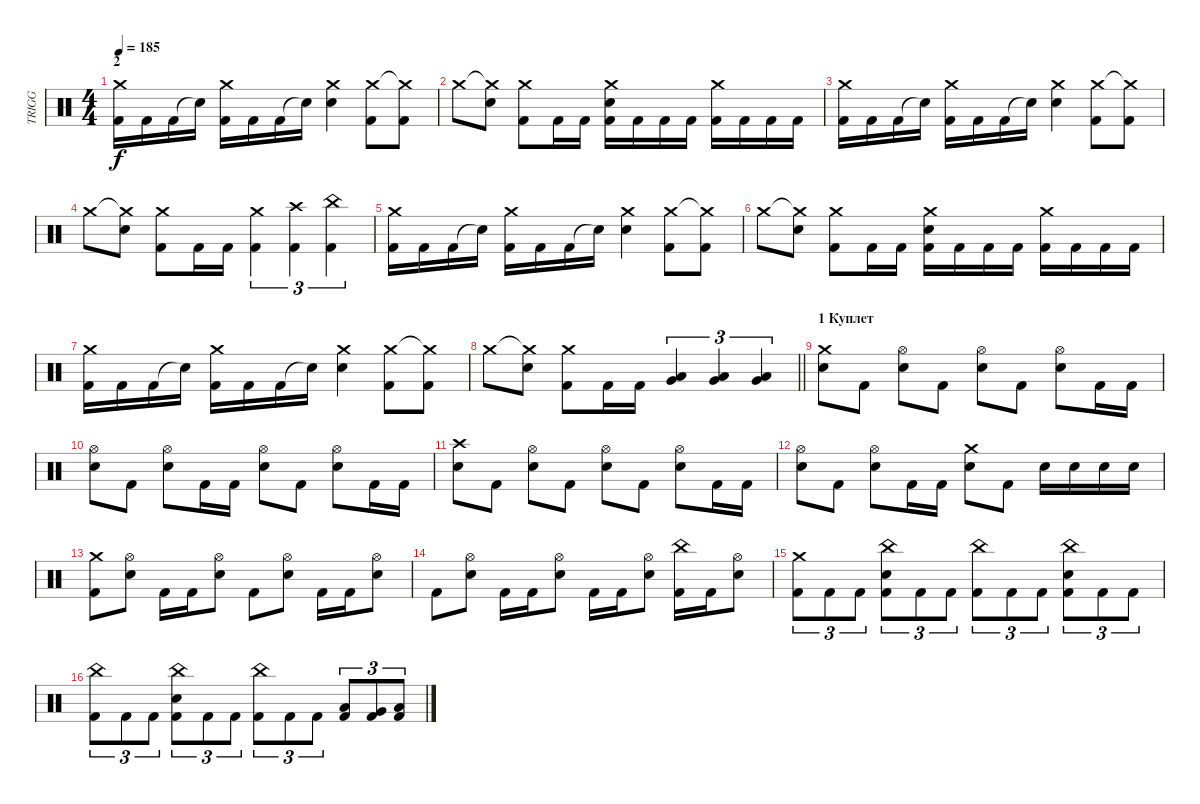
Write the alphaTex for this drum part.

\track ("TRIGG" "TRIGG") {instrument percussion}
\staff {score}
\articulation defaults
\ts (4 4)
\section ("" "2")
\tempo 185
\clef neutral
\ks c
("Crash medium (hit)" "Kick (hit) 2").16{dy f} "Kick (hit) 2".16 "Kick (hit) 2".16 "Snare (hit)"{t}.16 ("Crash medium (hit)" "Kick (hit) 2").16 "Kick (hit) 2".16 "Kick (hit) 2".16 "Snare (hit)"{t}.16 ("Crash medium (hit)" "Electric Snare (hit)").4 ("Crash medium (hit)" "Kick (hit) 2").8 ("Crash medium (hit)"{t} "Kick (hit) 2").8 |
"Crash medium (hit)".8 ("Crash medium (hit)"{t} "Electric Snare (hit)").8 ("Crash medium (hit)" "Kick (hit) 2").8 "Kick (hit) 2".16 "Kick (hit) 2".16 ("Crash medium (hit)" "Electric Snare (hit)" "Kick (hit) 2").16 "Kick (hit) 2".16 "Kick (hit) 2".16 "Kick (hit) 2".16 ("Crash medium (hit)" "Kick (hit) 2").16 "Kick (hit) 2".16 "Kick (hit) 2".16 "Kick (hit) 2".16 |
("Crash medium (hit)" "Kick (hit) 2").16 "Kick (hit) 2".16 "Kick (hit) 2".16 "Snare (hit)"{t}.16 ("Crash medium (hit)" "Kick (hit) 2").16 "Kick (hit) 2".16 "Kick (hit) 2".16 "Snare (hit)"{t}.16 ("Crash medium (hit)" "Electric Snare (hit)").4 ("Crash medium (hit)" "Kick (hit) 2").8 ("Crash medium (hit)"{t} "Kick (hit) 2").8 |
"Crash medium (hit)".8 ("Crash medium (hit)"{t} "Electric Snare (hit)").8 ("Crash medium (hit)" "Kick (hit) 2").8 "Kick (hit) 2".16 "Kick (hit) 2".16 ("Crash medium (hit)" "Kick (hit) 2").4{tu (3 2)} ("Crash high (hit)" "Kick (hit) 2").4{tu (3 2)} ("China (hit)" "Kick (hit) 2").4{tu (3 2)} |
("Crash medium (hit)" "Kick (hit) 2").16 "Kick (hit) 2".16 "Kick (hit) 2".16 "Snare (hit)"{t}.16 ("Crash medium (hit)" "Kick (hit) 2").16 "Kick (hit) 2".16 "Kick (hit) 2".16 "Snare (hit)"{t}.16 ("Crash medium (hit)" "Electric Snare (hit)").4 ("Crash medium (hit)" "Kick (hit) 2").8 ("Crash medium (hit)"{t} "Kick (hit) 2").8 |
"Crash medium (hit)".8 ("Crash medium (hit)"{t} "Electric Snare (hit)").8 ("Crash medium (hit)" "Kick (hit) 2").8 "Kick (hit) 2".16 "Kick (hit) 2".16 ("Crash medium (hit)" "Electric Snare (hit)" "Kick (hit) 2").16 "Kick (hit) 2".16 "Kick (hit) 2".16 "Kick (hit) 2".16 ("Crash medium (hit)" "Kick (hit) 2").16 "Kick (hit) 2".16 "Kick (hit) 2".16 "Kick (hit) 2".16 |
("Crash medium (hit)" "Kick (hit) 2").16 "Kick (hit) 2".16 "Kick (hit) 2".16 "Snare (hit)"{t}.16 ("Crash medium (hit)" "Kick (hit) 2").16 "Kick (hit) 2".16 "Kick (hit) 2".16 "Snare (hit)"{t}.16 ("Crash medium (hit)" "Electric Snare (hit)").4 ("Crash medium (hit)" "Kick (hit) 2").8 ("Crash medium (hit)"{t} "Kick (hit) 2").8 |
\barLineRight lightlight "Crash medium (hit)".8
("Crash medium (hit)"{t} "Electric Snare (hit)").8 ("Crash medium (hit)" "Kick (hit) 2").8 "Kick (hit) 2".16 "Kick (hit) 2".16 ("Very Low Tom (hit)" "Low Floor Tom (hit)").4{tu (3 2)} ("Very Low Tom (hit)" "Low Floor Tom (hit)").4{tu (3 2)} ("Very Low Tom (hit)" "Low Floor Tom (hit)").4{tu (3 2)} |
\section ("" "1 Куплет")
("Crash medium (hit)" "Electric Snare (hit)").8 "Kick (hit) 2".8 ("Hi-Hat (open)" "Electric Snare (hit)").8 "Kick (hit) 2".8 ("Hi-Hat (open)" "Electric Snare (hit)").8 "Kick (hit) 2".8 ("Hi-Hat (open)" "Electric Snare (hit)").8 "Kick (hit) 2".16 "Kick (hit) 2".16 |
("Hi-Hat (open)" "Electric Snare (hit)").8 "Kick (hit) 2".8 ("Hi-Hat (open)" "Electric Snare (hit)").8 "Kick (hit) 2".16 "Kick (hit) 2".16 ("Hi-Hat (open)" "Electric Snare (hit)").8 "Kick (hit) 2".8 ("Hi-Hat (open)" "Electric Snare (hit)").8 "Kick (hit) 2".16 "Kick (hit) 2".16 |
("Crash high (hit)" "Electric Snare (hit)").8 "Kick (hit) 2".8 ("Hi-Hat (open)" "Electric Snare (hit)").8 "Kick (hit) 2".8 ("Hi-Hat (open)" "Electric Snare (hit)").8 "Kick (hit) 2".8 ("Hi-Hat (open)" "Electric Snare (hit)").8 "Kick (hit) 2".16 "Kick (hit) 2".16 |
("Hi-Hat (open)" "Electric Snare (hit)").8 "Kick (hit) 2".8 ("Hi-Hat (open)" "Electric Snare (hit)").8 "Kick (hit) 2".16 "Kick (hit) 2".16 ("Crash medium (hit)" "Electric Snare (hit)").8 "Kick (hit) 2".8 "Electric Snare (hit)".16 "Electric Snare (hit)".16 "Electric Snare (hit)".16 "Electric Snare (hit)".16 |
("Crash medium (hit)" "Kick (hit) 2").8 ("Hi-Hat (open)" "Electric Snare (hit)").8 "Kick (hit) 2".16 "Kick (hit) 2".16 ("Hi-Hat (open)" "Electric Snare (hit)").8 "Kick (hit) 2".8 ("Hi-Hat (open)" "Electric Snare (hit)").8 "Kick (hit) 2".16 "Kick (hit) 2".16 ("Hi-Hat (open)" "Electric Snare (hit)").8 |
"Kick (hit) 2".8 ("Hi-Hat (open)" "Electric Snare (hit)").8 "Kick (hit) 2".16 "Kick (hit) 2".16 ("Hi-Hat (open)" "Electric Snare (hit)").8 "Kick (hit) 2".16 "Kick (hit) 2".16 ("Hi-Hat (open)" "Electric Snare (hit)").8 ("China (hit)" "Kick (hit) 2").16 "Kick (hit) 2".16 ("Hi-Hat (open)" "Electric Snare (hit)").8 |
("Crash medium (hit)" "Kick (hit) 2").8{tu (3 2)} "Kick (hit) 2".8{tu (3 2)} "Kick (hit) 2".8{tu (3 2)} ("China (hit)" "Electric Snare (hit)" "Kick (hit) 2").8{tu (3 2)} "Kick (hit) 2".8{tu (3 2)} "Kick (hit) 2".8{tu (3 2)} ("China (hit)" "Kick (hit) 2").8{tu (3 2)} "Kick (hit) 2".8{tu (3 2)} "Kick (hit) 2".8{tu (3 2)} ("China (hit)" "Electric Snare (hit)" "Kick (hit) 2").8{tu (3 2)} "Kick (hit) 2".8{tu (3 2)} "Kick (hit) 2".8{tu (3 2)} |
("China (hit)" "Kick (hit) 2").8{tu (3 2)} "Kick (hit) 2".8{tu (3 2)} "Kick (hit) 2".8{tu (3 2)} ("China (hit)" "Electric Snare (hit)" "Kick (hit) 2").8{tu (3 2)} "Kick (hit) 2".8{tu (3 2)} "Kick (hit) 2".8{tu (3 2)} ("China (hit)" "Kick (hit) 2").8{tu (3 2)} "Kick (hit) 2".8{tu (3 2)} "Kick (hit) 2".8{tu (3 2)} ("Low Tom (hit)" "Kick (hit) 2").8{tu (3 2)} ("Very Low Tom (hit)" "Kick (hit) 2").8{tu (3 2)} ("Low Floor Tom (hit)" "Kick (hit) 2").8{tu (3 2)}
